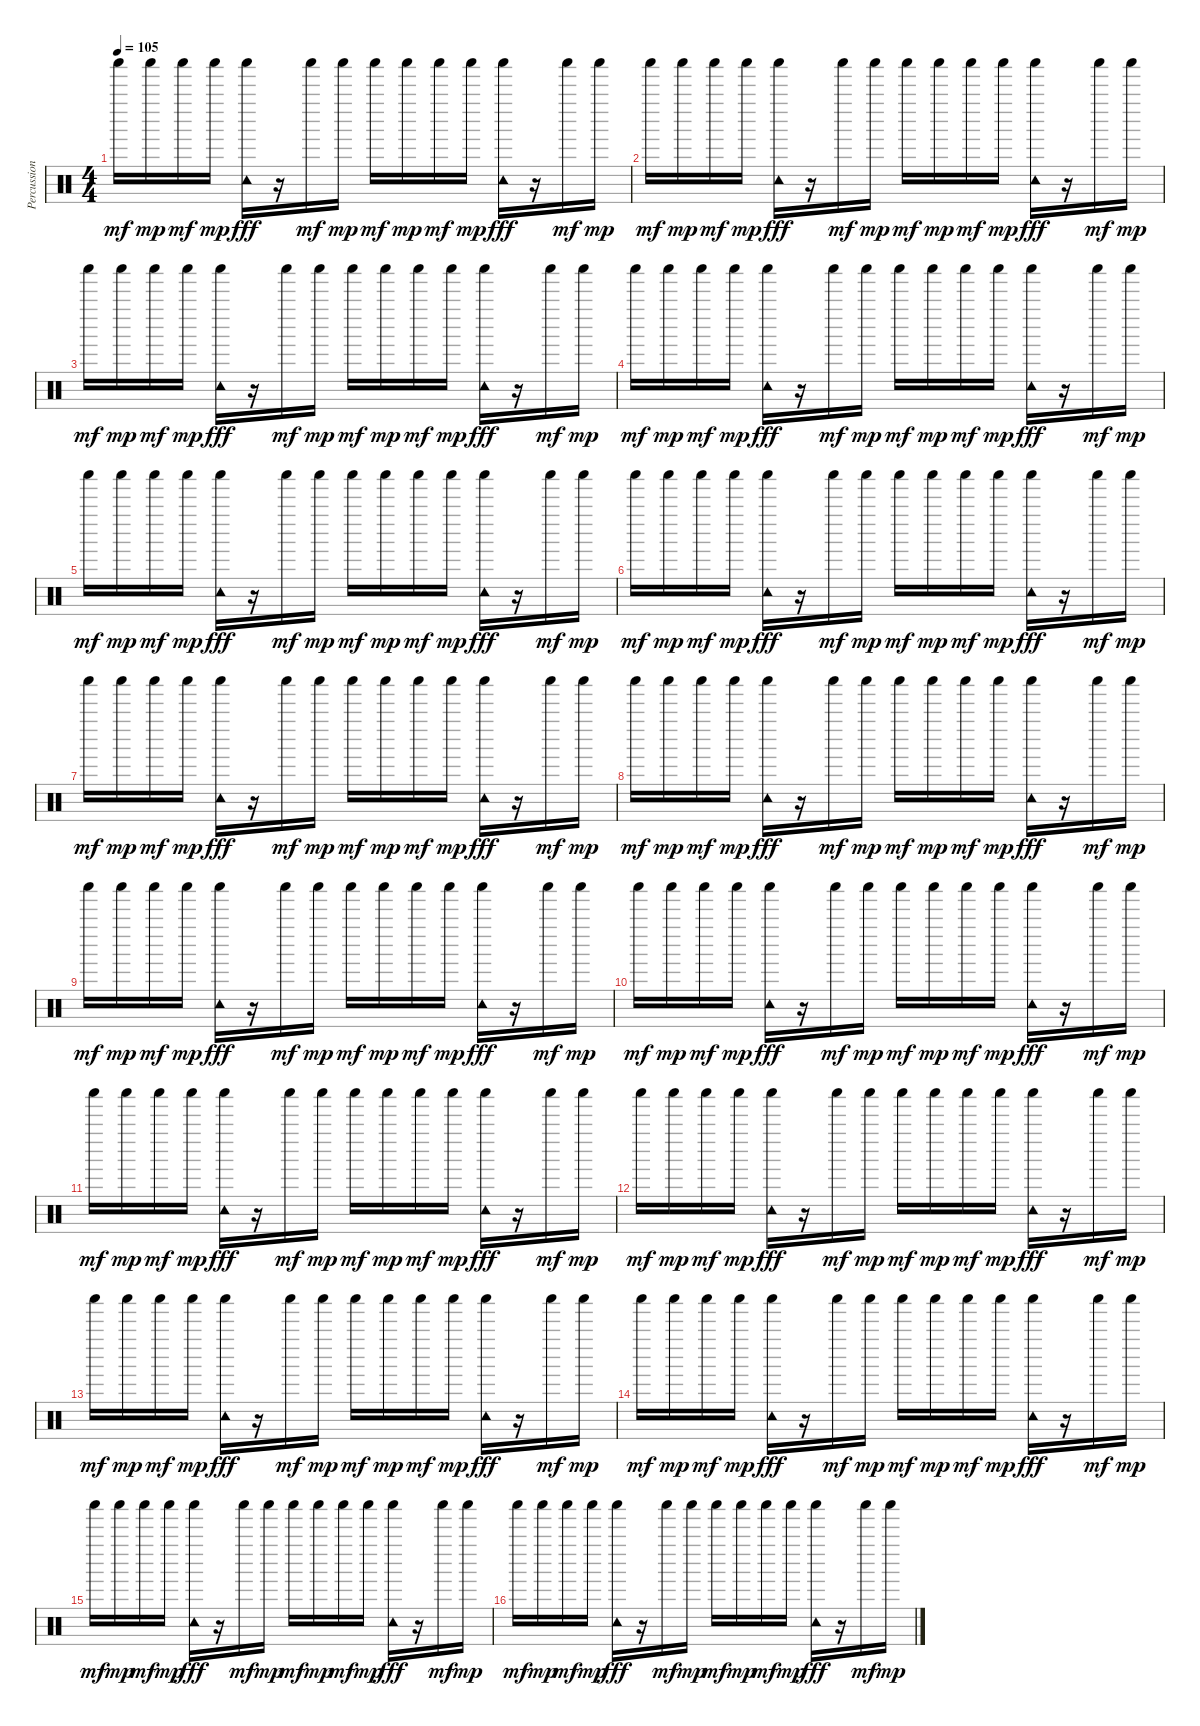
\track ("Percussion" "Percussion") {instrument percussion}
\staff {score}
\articulation defaults
\ts (4 4)
\tempo 105
\clef neutral
\ks c "Shaker (hit)".16{dy mf} "Shaker (hit)".16{dy mp} "Shaker (hit)".16{dy mf} "Shaker (hit)".16{dy mp}
("Shaker (hit)" "Tambourine (hit)").16{dy fff} r.16 "Shaker (hit)".16{dy mf} "Shaker (hit)".16{dy mp} "Shaker (hit)".16{dy mf} "Shaker (hit)".16{dy mp} "Shaker (hit)".16{dy mf} "Shaker (hit)".16{dy mp} ("Shaker (hit)" "Tambourine (hit)").16{dy fff} r.16 "Shaker (hit)".16{dy mf} "Shaker (hit)".16{dy mp} |
"Shaker (hit)".16{dy mf} "Shaker (hit)".16{dy mp} "Shaker (hit)".16{dy mf} "Shaker (hit)".16{dy mp} ("Shaker (hit)" "Tambourine (hit)").16{dy fff} r.16 "Shaker (hit)".16{dy mf} "Shaker (hit)".16{dy mp} "Shaker (hit)".16{dy mf} "Shaker (hit)".16{dy mp} "Shaker (hit)".16{dy mf} "Shaker (hit)".16{dy mp} ("Shaker (hit)" "Tambourine (hit)").16{dy fff} r.16 "Shaker (hit)".16{dy mf} "Shaker (hit)".16{dy mp} |
"Shaker (hit)".16{dy mf} "Shaker (hit)".16{dy mp} "Shaker (hit)".16{dy mf} "Shaker (hit)".16{dy mp} ("Shaker (hit)" "Tambourine (hit)").16{dy fff} r.16 "Shaker (hit)".16{dy mf} "Shaker (hit)".16{dy mp} "Shaker (hit)".16{dy mf} "Shaker (hit)".16{dy mp} "Shaker (hit)".16{dy mf} "Shaker (hit)".16{dy mp} ("Shaker (hit)" "Tambourine (hit)").16{dy fff} r.16 "Shaker (hit)".16{dy mf} "Shaker (hit)".16{dy mp} |
"Shaker (hit)".16{dy mf} "Shaker (hit)".16{dy mp} "Shaker (hit)".16{dy mf} "Shaker (hit)".16{dy mp} ("Shaker (hit)" "Tambourine (hit)").16{dy fff} r.16 "Shaker (hit)".16{dy mf} "Shaker (hit)".16{dy mp} "Shaker (hit)".16{dy mf} "Shaker (hit)".16{dy mp} "Shaker (hit)".16{dy mf} "Shaker (hit)".16{dy mp} ("Shaker (hit)" "Tambourine (hit)").16{dy fff} r.16 "Shaker (hit)".16{dy mf} "Shaker (hit)".16{dy mp} |
"Shaker (hit)".16{dy mf} "Shaker (hit)".16{dy mp} "Shaker (hit)".16{dy mf} "Shaker (hit)".16{dy mp} ("Shaker (hit)" "Tambourine (hit)").16{dy fff} r.16 "Shaker (hit)".16{dy mf} "Shaker (hit)".16{dy mp} "Shaker (hit)".16{dy mf} "Shaker (hit)".16{dy mp} "Shaker (hit)".16{dy mf} "Shaker (hit)".16{dy mp} ("Shaker (hit)" "Tambourine (hit)").16{dy fff} r.16 "Shaker (hit)".16{dy mf} "Shaker (hit)".16{dy mp} |
"Shaker (hit)".16{dy mf} "Shaker (hit)".16{dy mp} "Shaker (hit)".16{dy mf} "Shaker (hit)".16{dy mp} ("Shaker (hit)" "Tambourine (hit)").16{dy fff} r.16 "Shaker (hit)".16{dy mf} "Shaker (hit)".16{dy mp} "Shaker (hit)".16{dy mf} "Shaker (hit)".16{dy mp} "Shaker (hit)".16{dy mf} "Shaker (hit)".16{dy mp} ("Shaker (hit)" "Tambourine (hit)").16{dy fff} r.16 "Shaker (hit)".16{dy mf} "Shaker (hit)".16{dy mp} |
"Shaker (hit)".16{dy mf} "Shaker (hit)".16{dy mp} "Shaker (hit)".16{dy mf} "Shaker (hit)".16{dy mp} ("Shaker (hit)" "Tambourine (hit)").16{dy fff} r.16 "Shaker (hit)".16{dy mf} "Shaker (hit)".16{dy mp} "Shaker (hit)".16{dy mf} "Shaker (hit)".16{dy mp} "Shaker (hit)".16{dy mf} "Shaker (hit)".16{dy mp} ("Shaker (hit)" "Tambourine (hit)").16{dy fff} r.16 "Shaker (hit)".16{dy mf} "Shaker (hit)".16{dy mp} |
"Shaker (hit)".16{dy mf} "Shaker (hit)".16{dy mp} "Shaker (hit)".16{dy mf} "Shaker (hit)".16{dy mp} ("Shaker (hit)" "Tambourine (hit)").16{dy fff} r.16 "Shaker (hit)".16{dy mf} "Shaker (hit)".16{dy mp} "Shaker (hit)".16{dy mf} "Shaker (hit)".16{dy mp} "Shaker (hit)".16{dy mf} "Shaker (hit)".16{dy mp} ("Shaker (hit)" "Tambourine (hit)").16{dy fff} r.16 "Shaker (hit)".16{dy mf} "Shaker (hit)".16{dy mp} |
"Shaker (hit)".16{dy mf} "Shaker (hit)".16{dy mp} "Shaker (hit)".16{dy mf} "Shaker (hit)".16{dy mp} ("Shaker (hit)" "Tambourine (hit)").16{dy fff} r.16 "Shaker (hit)".16{dy mf} "Shaker (hit)".16{dy mp} "Shaker (hit)".16{dy mf} "Shaker (hit)".16{dy mp} "Shaker (hit)".16{dy mf} "Shaker (hit)".16{dy mp} ("Shaker (hit)" "Tambourine (hit)").16{dy fff} r.16 "Shaker (hit)".16{dy mf} "Shaker (hit)".16{dy mp} |
"Shaker (hit)".16{dy mf} "Shaker (hit)".16{dy mp} "Shaker (hit)".16{dy mf} "Shaker (hit)".16{dy mp} ("Shaker (hit)" "Tambourine (hit)").16{dy fff} r.16 "Shaker (hit)".16{dy mf} "Shaker (hit)".16{dy mp} "Shaker (hit)".16{dy mf} "Shaker (hit)".16{dy mp} "Shaker (hit)".16{dy mf} "Shaker (hit)".16{dy mp} ("Shaker (hit)" "Tambourine (hit)").16{dy fff} r.16 "Shaker (hit)".16{dy mf} "Shaker (hit)".16{dy mp} |
"Shaker (hit)".16{dy mf} "Shaker (hit)".16{dy mp} "Shaker (hit)".16{dy mf} "Shaker (hit)".16{dy mp} ("Shaker (hit)" "Tambourine (hit)").16{dy fff} r.16 "Shaker (hit)".16{dy mf} "Shaker (hit)".16{dy mp} "Shaker (hit)".16{dy mf} "Shaker (hit)".16{dy mp} "Shaker (hit)".16{dy mf} "Shaker (hit)".16{dy mp} ("Shaker (hit)" "Tambourine (hit)").16{dy fff} r.16 "Shaker (hit)".16{dy mf} "Shaker (hit)".16{dy mp} |
"Shaker (hit)".16{dy mf} "Shaker (hit)".16{dy mp} "Shaker (hit)".16{dy mf} "Shaker (hit)".16{dy mp} ("Shaker (hit)" "Tambourine (hit)").16{dy fff} r.16 "Shaker (hit)".16{dy mf} "Shaker (hit)".16{dy mp} "Shaker (hit)".16{dy mf} "Shaker (hit)".16{dy mp} "Shaker (hit)".16{dy mf} "Shaker (hit)".16{dy mp} ("Shaker (hit)" "Tambourine (hit)").16{dy fff} r.16 "Shaker (hit)".16{dy mf} "Shaker (hit)".16{dy mp} |
"Shaker (hit)".16{dy mf} "Shaker (hit)".16{dy mp} "Shaker (hit)".16{dy mf} "Shaker (hit)".16{dy mp} ("Shaker (hit)" "Tambourine (hit)").16{dy fff} r.16 "Shaker (hit)".16{dy mf} "Shaker (hit)".16{dy mp} "Shaker (hit)".16{dy mf} "Shaker (hit)".16{dy mp} "Shaker (hit)".16{dy mf} "Shaker (hit)".16{dy mp} ("Shaker (hit)" "Tambourine (hit)").16{dy fff} r.16 "Shaker (hit)".16{dy mf} "Shaker (hit)".16{dy mp} |
"Shaker (hit)".16{dy mf} "Shaker (hit)".16{dy mp} "Shaker (hit)".16{dy mf} "Shaker (hit)".16{dy mp} ("Shaker (hit)" "Tambourine (hit)").16{dy fff} r.16 "Shaker (hit)".16{dy mf} "Shaker (hit)".16{dy mp} "Shaker (hit)".16{dy mf} "Shaker (hit)".16{dy mp} "Shaker (hit)".16{dy mf} "Shaker (hit)".16{dy mp} ("Shaker (hit)" "Tambourine (hit)").16{dy fff} r.16 "Shaker (hit)".16{dy mf} "Shaker (hit)".16{dy mp} |
"Shaker (hit)".16{dy mf} "Shaker (hit)".16{dy mp} "Shaker (hit)".16{dy mf} "Shaker (hit)".16{dy mp} ("Shaker (hit)" "Tambourine (hit)").16{dy fff} r.16 "Shaker (hit)".16{dy mf} "Shaker (hit)".16{dy mp} "Shaker (hit)".16{dy mf} "Shaker (hit)".16{dy mp} "Shaker (hit)".16{dy mf} "Shaker (hit)".16{dy mp} ("Shaker (hit)" "Tambourine (hit)").16{dy fff} r.16 "Shaker (hit)".16{dy mf} "Shaker (hit)".16{dy mp} |
"Shaker (hit)".16{dy mf} "Shaker (hit)".16{dy mp} "Shaker (hit)".16{dy mf} "Shaker (hit)".16{dy mp} ("Shaker (hit)" "Tambourine (hit)").16{dy fff} r.16 "Shaker (hit)".16{dy mf} "Shaker (hit)".16{dy mp} "Shaker (hit)".16{dy mf} "Shaker (hit)".16{dy mp} "Shaker (hit)".16{dy mf} "Shaker (hit)".16{dy mp} ("Shaker (hit)" "Tambourine (hit)").16{dy fff} r.16 "Shaker (hit)".16{dy mf} "Shaker (hit)".16{dy mp}
